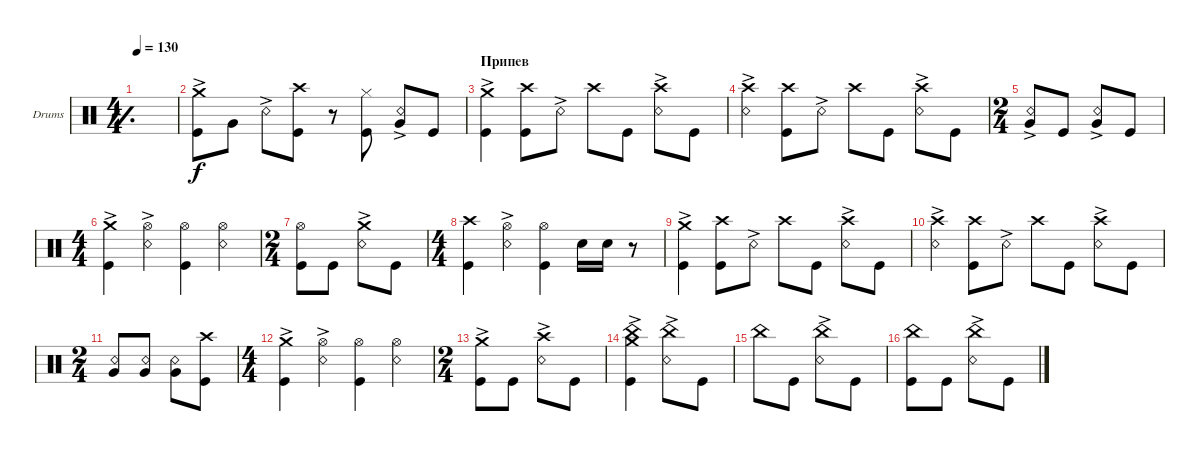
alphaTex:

\defaultSystemsLayout 4
\bracketExtendMode groupsimilarinstruments
\firstSystemTrackNameOrientation horizontal
\otherSystemsTrackNameOrientation horizontal
\track ("Drumkit" "Drums") {instrument percussion}
\staff {score}
\articulation defaults
\ts (4 4)
\tempo 130
\clef neutral
\simile simple
\ks c
|
("Kick (hit)" "Crash medium (hit)"{ac}).8 "Very Low Tom (hit)".8 "Snare (rim shot)"{ac}.8 ("Kick (hit)" "Crash high (hit)").8 r.8 ("Hi-Hat (closed)" "Kick (hit)").8 ("Snare (rim shot)"{ac} "Very Low Tom (hit)").8 "Kick (hit)".8 |
\section ("" "Припев")
("Crash medium (hit)"{ac} "Kick (hit)").4 ("Crash high (hit)" "Kick (hit)").8 "Snare (rim shot)"{ac}.8 "Crash high (hit)".8 "Kick (hit)".8 ("Crash high (hit)" "Snare (rim shot)"{ac}).8 "Kick (hit)".8 |
("Crash high (hit)" "Snare (rim shot)"{ac}).4 ("Crash high (hit)" "Kick (hit)").8 "Snare (rim shot)"{ac}.8 "Crash high (hit)".8 "Kick (hit)".8 ("Crash high (hit)" "Snare (rim shot)"{ac}).8 "Kick (hit)".8 |
\ts (2 4)
("Snare (rim shot)"{ac} "Very Low Tom (hit)").8 "Kick (hit)".8 ("Snare (rim shot)"{ac} "Very Low Tom (hit)").8 "Kick (hit)".8 |
\ts (4 4)
("Crash medium (hit)"{ac} "Kick (hit)").4 ("Hi-Hat (open)" "Snare (rim shot)"{ac}).4 ("Hi-Hat (open)" "Kick (hit)").4 ("Hi-Hat (open)" "Snare (rim shot)").4 |
\ts (2 4)
("Hi-Hat (open)" "Kick (hit)").8 "Kick (hit)".8 ("Crash medium (hit)"{ac} "Snare (rim shot)"{ac}).8 "Kick (hit)".8 |
\ts (4 4)
\beaming (8 2 2 2 2)
("Kick (hit)" "Crash high (hit)").4 ("Hi-Hat (open)" "Snare (rim shot)"{ac}).4 ("Hi-Hat (open)" "Kick (hit)").4 "Snare (hit) 2".16 "Snare (hit) 2".16 r.8 |
("Crash medium (hit)"{ac} "Kick (hit)").4 ("Crash high (hit)" "Kick (hit)").8 "Snare (rim shot)"{ac}.8 "Crash high (hit)".8 "Kick (hit)".8 ("Crash high (hit)" "Snare (rim shot)"{ac}).8 "Kick (hit)".8 |
("Crash high (hit)" "Snare (rim shot)"{ac}).4 ("Crash high (hit)" "Kick (hit)").8 "Snare (rim shot)"{ac}.8 "Crash high (hit)".8 "Kick (hit)".8 ("Crash high (hit)" "Snare (rim shot)"{ac}).8 "Kick (hit)".8 |
\ts (2 4)
("Snare (rim shot)" "Very Low Tom (hit)").8 ("Snare (rim shot)" "Very Low Tom (hit)").8 ("Snare (rim shot)" "Very Low Tom (hit)").8 ("Crash high (hit)" "Kick (hit)").8 |
\ts (4 4)
("Crash medium (hit)"{ac} "Kick (hit)").4 ("Hi-Hat (open)" "Snare (rim shot)"{ac}).4 ("Hi-Hat (open)" "Kick (hit)").4 ("Hi-Hat (open)" "Snare (rim shot)").4 |
\ts (2 4)
("Crash medium (hit)"{ac} "Kick (hit)").8 "Kick (hit)".8 ("Snare (rim shot)"{ac} "Crash high (hit)").8 "Kick (hit)".8 |
("Crash medium (hit)"{ac} "China (hit)" "Kick (hit)").4 ("China (hit)" "Snare (rim shot)"{ac}).8 "Kick (hit)".8 |
"China (hit)".8 "Kick (hit)".8 ("China (hit)" "Snare (rim shot)"{ac}).8 "Kick (hit)".8 |
("Kick (hit)" "China (hit)").8 "Kick (hit)".8 ("China (hit)" "Snare (rim shot)"{ac}).8 "Kick (hit)".8
